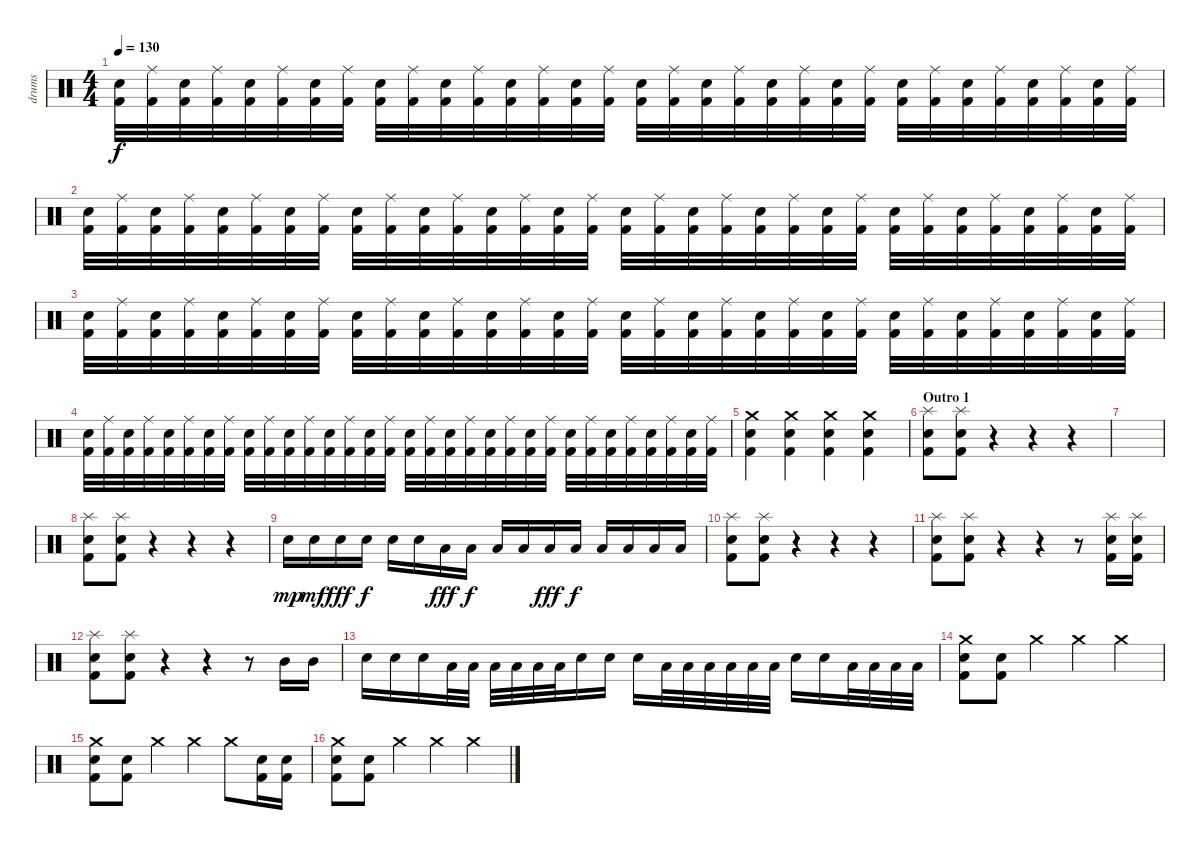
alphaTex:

\track ("drums" "drums") {instrument percussion}
\staff {score}
\articulation defaults
\ts (4 4)
\tempo 130
\clef neutral
\ks c
("Electric Snare (hit)" "Kick (hit) 2").32{dy f} ("Ride (middle)" "Kick (hit) 2").32 ("Electric Snare (hit)" "Kick (hit) 2").32 ("Ride (middle)" "Kick (hit) 2").32 ("Electric Snare (hit)" "Kick (hit) 2").32 ("Ride (middle)" "Kick (hit) 2").32 ("Electric Snare (hit)" "Kick (hit) 2").32 ("Ride (middle)" "Kick (hit) 2").32 ("Electric Snare (hit)" "Kick (hit) 2").32 ("Ride (middle)" "Kick (hit) 2").32 ("Electric Snare (hit)" "Kick (hit) 2").32 ("Ride (middle)" "Kick (hit) 2").32 ("Electric Snare (hit)" "Kick (hit) 2").32 ("Ride (middle)" "Kick (hit) 2").32 ("Electric Snare (hit)" "Kick (hit) 2").32 ("Ride (middle)" "Kick (hit) 2").32 ("Electric Snare (hit)" "Kick (hit) 2").32 ("Ride (middle)" "Kick (hit) 2").32 ("Electric Snare (hit)" "Kick (hit) 2").32 ("Ride (middle)" "Kick (hit) 2").32 ("Electric Snare (hit)" "Kick (hit) 2").32 ("Ride (middle)" "Kick (hit) 2").32 ("Electric Snare (hit)" "Kick (hit) 2").32 ("Ride (middle)" "Kick (hit) 2").32 ("Electric Snare (hit)" "Kick (hit) 2").32 ("Ride (middle)" "Kick (hit) 2").32 ("Electric Snare (hit)" "Kick (hit) 2").32 ("Ride (middle)" "Kick (hit) 2").32 ("Electric Snare (hit)" "Kick (hit) 2").32 ("Ride (middle)" "Kick (hit) 2").32 ("Electric Snare (hit)" "Kick (hit) 2").32 ("Ride (middle)" "Kick (hit) 2").32 |
("Electric Snare (hit)" "Kick (hit) 2").32 ("Ride (middle)" "Kick (hit) 2").32 ("Electric Snare (hit)" "Kick (hit) 2").32 ("Ride (middle)" "Kick (hit) 2").32 ("Electric Snare (hit)" "Kick (hit) 2").32 ("Ride (middle)" "Kick (hit) 2").32 ("Electric Snare (hit)" "Kick (hit) 2").32 ("Ride (middle)" "Kick (hit) 2").32 ("Electric Snare (hit)" "Kick (hit) 2").32 ("Ride (middle)" "Kick (hit) 2").32 ("Electric Snare (hit)" "Kick (hit) 2").32 ("Ride (middle)" "Kick (hit) 2").32 ("Electric Snare (hit)" "Kick (hit) 2").32 ("Ride (middle)" "Kick (hit) 2").32 ("Electric Snare (hit)" "Kick (hit) 2").32 ("Ride (middle)" "Kick (hit) 2").32 ("Electric Snare (hit)" "Kick (hit) 2").32 ("Ride (middle)" "Kick (hit) 2").32 ("Electric Snare (hit)" "Kick (hit) 2").32 ("Ride (middle)" "Kick (hit) 2").32 ("Electric Snare (hit)" "Kick (hit) 2").32 ("Ride (middle)" "Kick (hit) 2").32 ("Electric Snare (hit)" "Kick (hit) 2").32 ("Ride (middle)" "Kick (hit) 2").32 ("Electric Snare (hit)" "Kick (hit) 2").32 ("Ride (middle)" "Kick (hit) 2").32 ("Electric Snare (hit)" "Kick (hit) 2").32 ("Ride (middle)" "Kick (hit) 2").32 ("Electric Snare (hit)" "Kick (hit) 2").32 ("Ride (middle)" "Kick (hit) 2").32 ("Electric Snare (hit)" "Kick (hit) 2").32 ("Ride (middle)" "Kick (hit) 2").32 |
("Electric Snare (hit)" "Kick (hit) 2").32 ("Ride (middle)" "Kick (hit) 2").32 ("Electric Snare (hit)" "Kick (hit) 2").32 ("Ride (middle)" "Kick (hit) 2").32 ("Electric Snare (hit)" "Kick (hit) 2").32 ("Ride (middle)" "Kick (hit) 2").32 ("Electric Snare (hit)" "Kick (hit) 2").32 ("Ride (middle)" "Kick (hit) 2").32 ("Electric Snare (hit)" "Kick (hit) 2").32 ("Ride (middle)" "Kick (hit) 2").32 ("Electric Snare (hit)" "Kick (hit) 2").32 ("Ride (middle)" "Kick (hit) 2").32 ("Electric Snare (hit)" "Kick (hit) 2").32 ("Ride (middle)" "Kick (hit) 2").32 ("Electric Snare (hit)" "Kick (hit) 2").32 ("Ride (middle)" "Kick (hit) 2").32 ("Electric Snare (hit)" "Kick (hit) 2").32 ("Ride (middle)" "Kick (hit) 2").32 ("Electric Snare (hit)" "Kick (hit) 2").32 ("Ride (middle)" "Kick (hit) 2").32 ("Electric Snare (hit)" "Kick (hit) 2").32 ("Ride (middle)" "Kick (hit) 2").32 ("Electric Snare (hit)" "Kick (hit) 2").32 ("Ride (middle)" "Kick (hit) 2").32 ("Electric Snare (hit)" "Kick (hit) 2").32 ("Ride (middle)" "Kick (hit) 2").32 ("Electric Snare (hit)" "Kick (hit) 2").32 ("Ride (middle)" "Kick (hit) 2").32 ("Electric Snare (hit)" "Kick (hit) 2").32 ("Ride (middle)" "Kick (hit) 2").32 ("Electric Snare (hit)" "Kick (hit) 2").32 ("Ride (middle)" "Kick (hit) 2").32 |
("Electric Snare (hit)" "Kick (hit) 2").32 ("Ride (middle)" "Kick (hit) 2").32 ("Electric Snare (hit)" "Kick (hit) 2").32 ("Ride (middle)" "Kick (hit) 2").32 ("Electric Snare (hit)" "Kick (hit) 2").32 ("Ride (middle)" "Kick (hit) 2").32 ("Electric Snare (hit)" "Kick (hit) 2").32 ("Ride (middle)" "Kick (hit) 2").32 ("Electric Snare (hit)" "Kick (hit) 2").32 ("Ride (middle)" "Kick (hit) 2").32 ("Electric Snare (hit)" "Kick (hit) 2").32 ("Ride (middle)" "Kick (hit) 2").32 ("Electric Snare (hit)" "Kick (hit) 2").32 ("Ride (middle)" "Kick (hit) 2").32 ("Electric Snare (hit)" "Kick (hit) 2").32 ("Ride (middle)" "Kick (hit) 2").32 ("Electric Snare (hit)" "Kick (hit) 2").32 ("Ride (middle)" "Kick (hit) 2").32 ("Electric Snare (hit)" "Kick (hit) 2").32 ("Ride (middle)" "Kick (hit) 2").32 ("Electric Snare (hit)" "Kick (hit) 2").32 ("Ride (middle)" "Kick (hit) 2").32 ("Electric Snare (hit)" "Kick (hit) 2").32 ("Ride (middle)" "Kick (hit) 2").32 ("Electric Snare (hit)" "Kick (hit) 2").32 ("Ride (middle)" "Kick (hit) 2").32 ("Electric Snare (hit)" "Kick (hit) 2").32 ("Ride (middle)" "Kick (hit) 2").32 ("Electric Snare (hit)" "Kick (hit) 2").32 ("Ride (middle)" "Kick (hit) 2").32 ("Electric Snare (hit)" "Kick (hit) 2").32 ("Ride (middle)" "Kick (hit) 2").32 |
("Crash medium (hit)" "Electric Snare (hit)" "Kick (hit) 2").4 ("Crash medium (hit)" "Electric Snare (hit)" "Kick (hit) 2").4 ("Crash medium (hit)" "Electric Snare (hit)" "Kick (hit) 2").4 ("Crash medium (hit)" "Electric Snare (hit)" "Kick (hit) 2").4 |
\section ("" "Outro 1")
("Splash (hit)" "Electric Snare (hit)" "Kick (hit) 2").8 ("Splash (hit)" "Electric Snare (hit)" "Kick (hit) 2").8 r.4 r.4 r.4 |
|
("Splash (hit)" "Electric Snare (hit)" "Kick (hit) 2").8 ("Splash (hit)" "Electric Snare (hit)" "Kick (hit) 2").8 r.4 r.4 r.4 |
"Electric Snare (hit)".16{dy mp} "Electric Snare (hit)".16{dy mf} "Electric Snare (hit)".16{dy fff} "Electric Snare (hit)".16{dy f} "Electric Snare (hit)".16 "Electric Snare (hit)".16 "Low Tom (hit)".16{dy fff} "Low Tom (hit)".16{dy f} "Low Tom (hit)".16 "Low Tom (hit)".16 "Low Tom (hit)".16{dy fff} "Low Tom (hit)".16{dy f} "Low Tom (hit)".16 "Low Tom (hit)".16 "Low Tom (hit)".16 "Low Tom (hit)".16 |
("Splash (hit)" "Electric Snare (hit)" "Kick (hit) 2").8 ("Splash (hit)" "Electric Snare (hit)" "Kick (hit) 2").8 r.4 r.4 r.4 |
("Splash (hit)" "Electric Snare (hit)" "Kick (hit) 2").8 ("Splash (hit)" "Electric Snare (hit)" "Kick (hit) 2").8 r.4 r.4 r.8 ("Splash (hit)" "Electric Snare (hit)" "Kick (hit) 2").16 ("Splash (hit)" "Electric Snare (hit)" "Kick (hit) 2").16 |
("Splash (hit)" "Electric Snare (hit)" "Kick (hit) 2").8 ("Splash (hit)" "Electric Snare (hit)" "Kick (hit) 2").8 r.4 r.4 r.8 "Mid Tom (hit)".16 "Mid Tom (hit)".16 |
"Electric Snare (hit)".16 "Electric Snare (hit)".16 "Electric Snare (hit)".16 "Low Tom (hit)".32 "Low Tom (hit)".32 "Low Tom (hit)".32 "Low Tom (hit)".32 "Low Tom (hit)".32 "Low Tom (hit)".32 "Electric Snare (hit)".16 "Electric Snare (hit)".16 "Electric Snare (hit)".16 "Low Tom (hit)".32 "Low Tom (hit)".32 "Low Tom (hit)".32 "Low Tom (hit)".32 "Low Tom (hit)".32 "Low Tom (hit)".32 "Electric Snare (hit)".16 "Electric Snare (hit)".16 "Low Tom (hit)".32 "Low Tom (hit)".32 "Low Tom (hit)".32 "Low Tom (hit)".32 |
("Crash medium (hit)" "Electric Snare (hit)" "Kick (hit) 2").8 ("Electric Snare (hit)" "Kick (hit) 2").8 "Crash medium (hit)".4 "Crash medium (hit)".4 "Crash medium (hit)".4 |
("Crash medium (hit)" "Electric Snare (hit)" "Kick (hit) 2").8 ("Electric Snare (hit)" "Kick (hit) 2").8 "Crash medium (hit)".4 "Crash medium (hit)".4 "Crash medium (hit)".8 ("Electric Snare (hit)" "Kick (hit) 2").16 ("Electric Snare (hit)" "Kick (hit) 2").16 |
("Crash medium (hit)" "Electric Snare (hit)" "Kick (hit) 2").8 ("Electric Snare (hit)" "Kick (hit) 2").8 "Crash medium (hit)".4 "Crash medium (hit)".4 "Crash medium (hit)".4
